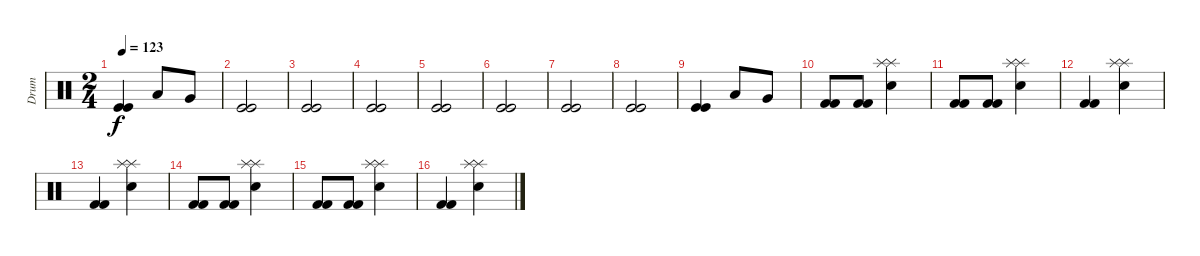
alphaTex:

\track ("Drum" "Drum") {instrument percussion}
\staff {score}
\articulation defaults
\ts (2 4)
\tempo 123
\clef neutral
\ks c
("Kick (hit)" "Kick (hit)").4{dy f} "Low Tom (hit)".8 "Very Low Tom (hit)".8 |
("Kick (hit)" "Kick (hit)").2 |
("Kick (hit)" "Kick (hit)").2 |
("Kick (hit)" "Kick (hit)").2 |
("Kick (hit)" "Kick (hit)").2 |
("Kick (hit)" "Kick (hit)").2 |
("Kick (hit)" "Kick (hit)").2 |
("Kick (hit)" "Kick (hit)").2 |
("Kick (hit)" "Kick (hit)").4 "Low Tom (hit)".8 "Very Low Tom (hit)".8 |
("Kick (hit) 2" "Kick (hit) 2").8 ("Kick (hit) 2" "Kick (hit) 2").8 ("Splash (hit)" "Splash (hit)" "Snare (hit) 2").4 |
("Kick (hit) 2" "Kick (hit) 2").8 ("Kick (hit) 2" "Kick (hit) 2").8 ("Splash (hit)" "Splash (hit)" "Snare (hit) 2").4 |
("Kick (hit) 2" "Kick (hit) 2").4 ("Splash (hit)" "Splash (hit)" "Snare (hit) 2").4 |
("Kick (hit) 2" "Kick (hit) 2").4 ("Splash (hit)" "Splash (hit)" "Snare (hit) 2").4 |
("Kick (hit) 2" "Kick (hit) 2").8 ("Kick (hit) 2" "Kick (hit) 2").8 ("Splash (hit)" "Splash (hit)" "Snare (hit) 2").4 |
("Kick (hit) 2" "Kick (hit) 2").8 ("Kick (hit) 2" "Kick (hit) 2").8 ("Splash (hit)" "Splash (hit)" "Snare (hit) 2").4 |
("Kick (hit) 2" "Kick (hit) 2").4 ("Splash (hit)" "Splash (hit)" "Snare (hit) 2").4
